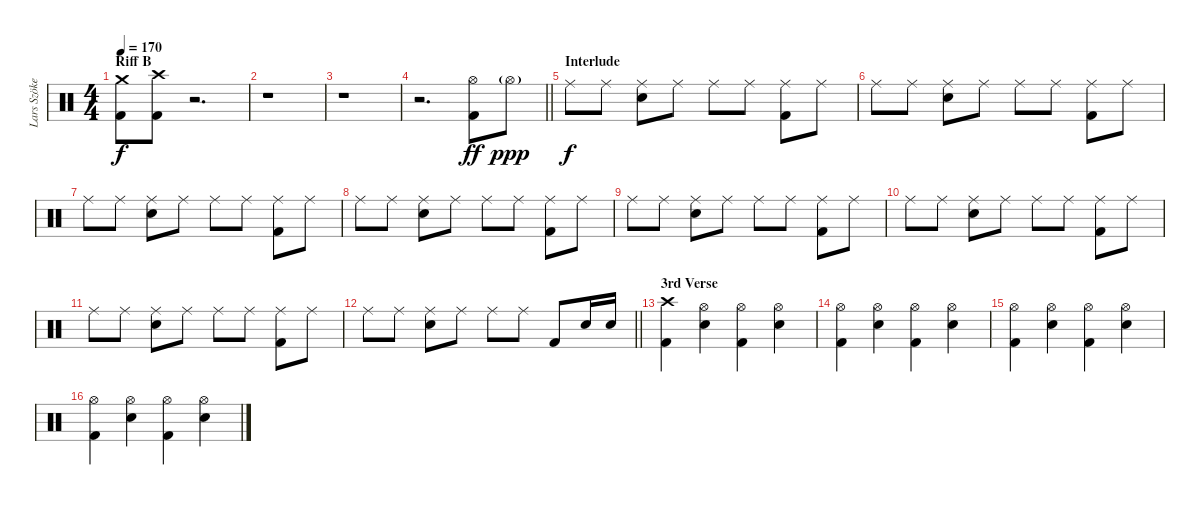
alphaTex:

\track ("Lars Szöke" "Lars Szöke") {instrument percussion}
\staff {score}
\articulation defaults
\ts (4 4)
\section ("" "Riff B")
\tempo 170
\clef neutral
\ks c
("Crash medium (hit)" "Kick (hit) 2").8{dy f} ("Crash high (hit)" "Kick (hit) 2").8 r.2{d} |
r.1 |
r.1 |
\barLineRight lightlight
r.2{d} ("Hi-Hat (open)" "Kick (hit) 2").8{dy ff} "Hi-Hat (open)"{g}.8{dy ppp} |
\section ("" "Interlude")
"Ride (middle)".8{dy f} "Ride (middle)".8 ("Ride (middle)" "Snare (hit) 2").8 "Ride (middle)".8 "Ride (middle)".8 "Ride (middle)".8 ("Ride (middle)" "Kick (hit) 2").8 "Ride (middle)".8 |
"Ride (middle)".8 "Ride (middle)".8 ("Ride (middle)" "Snare (hit) 2").8 "Ride (middle)".8 "Ride (middle)".8 "Ride (middle)".8 ("Ride (middle)" "Kick (hit) 2").8 "Ride (middle)".8 |
"Ride (middle)".8 "Ride (middle)".8 ("Ride (middle)" "Snare (hit) 2").8 "Ride (middle)".8 "Ride (middle)".8 "Ride (middle)".8 ("Ride (middle)" "Kick (hit) 2").8 "Ride (middle)".8 |
"Ride (middle)".8 "Ride (middle)".8 ("Ride (middle)" "Snare (hit) 2").8 "Ride (middle)".8 "Ride (middle)".8 "Ride (middle)".8 ("Ride (middle)" "Kick (hit) 2").8 "Ride (middle)".8 |
"Ride (middle)".8 "Ride (middle)".8 ("Ride (middle)" "Snare (hit) 2").8 "Ride (middle)".8 "Ride (middle)".8 "Ride (middle)".8 ("Ride (middle)" "Kick (hit) 2").8 "Ride (middle)".8 |
"Ride (middle)".8 "Ride (middle)".8 ("Ride (middle)" "Snare (hit) 2").8 "Ride (middle)".8 "Ride (middle)".8 "Ride (middle)".8 ("Ride (middle)" "Kick (hit) 2").8 "Ride (middle)".8 |
"Ride (middle)".8 "Ride (middle)".8 ("Ride (middle)" "Snare (hit) 2").8 "Ride (middle)".8 "Ride (middle)".8 "Ride (middle)".8 ("Ride (middle)" "Kick (hit) 2").8 "Ride (middle)".8 |
\barLineRight lightlight "Ride (middle)".8 "Ride (middle)".8
("Ride (middle)" "Snare (hit) 2").8 "Ride (middle)".8 "Ride (middle)".8 "Ride (middle)".8 "Kick (hit) 2".8 "Snare (hit) 2".16 "Snare (hit) 2".16 |
\section ("" "3rd Verse")
("Crash high (hit)" "Kick (hit) 2").4 ("Hi-Hat (open)" "Snare (hit) 2").4 ("Hi-Hat (open)" "Kick (hit) 2").4 ("Hi-Hat (open)" "Snare (hit) 2").4 |
("Hi-Hat (open)" "Kick (hit) 2").4 ("Hi-Hat (open)" "Snare (hit) 2").4 ("Hi-Hat (open)" "Kick (hit) 2").4 ("Hi-Hat (open)" "Snare (hit) 2").4 |
("Hi-Hat (open)" "Kick (hit) 2").4 ("Hi-Hat (open)" "Snare (hit) 2").4 ("Hi-Hat (open)" "Kick (hit) 2").4 ("Hi-Hat (open)" "Snare (hit) 2").4 |
("Hi-Hat (open)" "Kick (hit) 2").4 ("Hi-Hat (open)" "Snare (hit) 2").4 ("Hi-Hat (open)" "Kick (hit) 2").4 ("Hi-Hat (open)" "Snare (hit) 2").4
